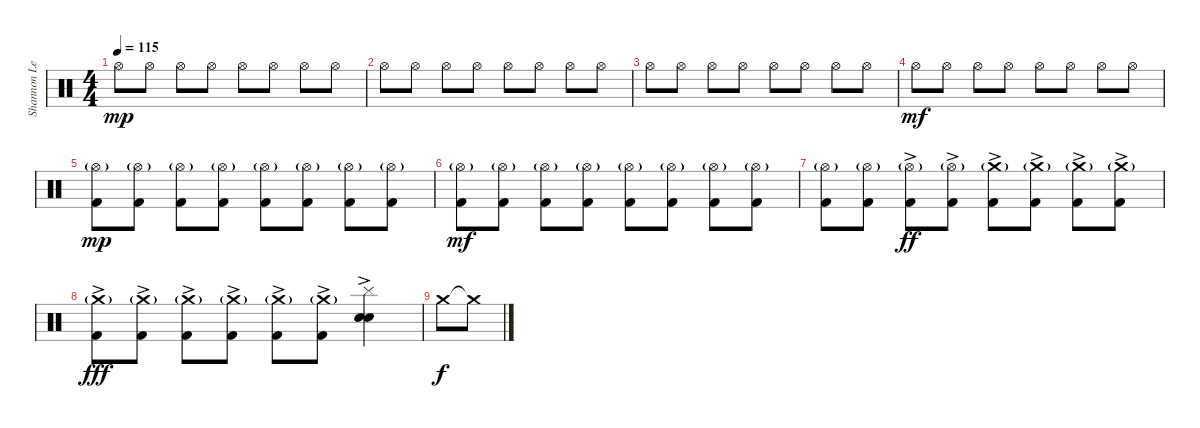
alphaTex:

\track ("Shannon Leto" "Shannon Le") {instrument percussion}
\staff {score}
\articulation defaults
\ts (4 4)
\tempo 115
\clef neutral
\ks c "Hi-Hat (open)".8{dy mp volume 6} "Hi-Hat (open)".8 "Hi-Hat (open)".8 "Hi-Hat (open)".8 "Hi-Hat (open)".8 "Hi-Hat (open)".8 "Hi-Hat (open)".8 "Hi-Hat (open)".8
|
"Hi-Hat (open)".8 "Hi-Hat (open)".8 "Hi-Hat (open)".8 "Hi-Hat (open)".8 "Hi-Hat (open)".8 "Hi-Hat (open)".8 "Hi-Hat (open)".8 "Hi-Hat (open)".8 |
"Hi-Hat (open)".8 "Hi-Hat (open)".8 "Hi-Hat (open)".8 "Hi-Hat (open)".8 "Hi-Hat (open)".8 "Hi-Hat (open)".8 "Hi-Hat (open)".8 "Hi-Hat (open)".8 |
"Hi-Hat (open)".8{dy mf} "Hi-Hat (open)".8 "Hi-Hat (open)".8 "Hi-Hat (open)".8 "Hi-Hat (open)".8 "Hi-Hat (open)".8 "Hi-Hat (open)".8 "Hi-Hat (open)".8 |
("Hi-Hat (open)"{g} "Kick (hit) 2").8{dy mp volume 13} ("Hi-Hat (open)"{g} "Kick (hit) 2").8 ("Hi-Hat (open)"{g} "Kick (hit) 2").8 ("Hi-Hat (open)"{g} "Kick (hit) 2").8 ("Hi-Hat (open)"{g} "Kick (hit) 2").8 ("Hi-Hat (open)"{g} "Kick (hit) 2").8 ("Hi-Hat (open)"{g} "Kick (hit) 2").8 ("Hi-Hat (open)"{g} "Kick (hit) 2").8 |
("Hi-Hat (open)"{g} "Kick (hit) 2").8{dy mf} ("Hi-Hat (open)"{g} "Kick (hit) 2").8 ("Hi-Hat (open)"{g} "Kick (hit) 2").8 ("Hi-Hat (open)"{g} "Kick (hit) 2").8 ("Hi-Hat (open)"{g} "Kick (hit) 2").8 ("Hi-Hat (open)"{g} "Kick (hit) 2").8 ("Hi-Hat (open)"{g} "Kick (hit) 2").8 ("Hi-Hat (open)"{g} "Kick (hit) 2").8 |
("Hi-Hat (open)"{g} "Kick (hit) 2").8 ("Hi-Hat (open)"{g} "Kick (hit) 2").8 ("Hi-Hat (open)"{g} "Kick (hit) 2"{ac}).8{dy ff} ("Hi-Hat (open)"{g} "Kick (hit) 2"{ac}).8 ("Crash medium (hit)"{g} "Kick (hit) 2"{ac}).8 ("Crash medium (hit)"{g} "Kick (hit) 2"{ac}).8 ("Crash medium (hit)"{g} "Kick (hit) 2"{ac}).8 ("Crash medium (hit)"{g} "Kick (hit) 2"{ac}).8 |
("Crash medium (hit)"{g} "Kick (hit) 2"{ac}).8{dy fff} ("Crash medium (hit)"{g} "Kick (hit) 2"{ac}).8 ("Crash medium (hit)"{g} "Kick (hit) 2"{ac}).8 ("Crash medium (hit)"{g} "Kick (hit) 2"{ac}).8 ("Crash medium (hit)"{g} "Kick (hit) 2"{ac}).8 ("Crash medium (hit)"{g} "Kick (hit) 2"{ac}).8 ("Hand Clap (hit)"{ac} "Snare (hit) 2"{ac} "Cymbal (hit)"{ac}).4{volume 16} |
"Crash medium (hit)".8{dy f volume 13} "Crash medium (hit)"{t}.8
